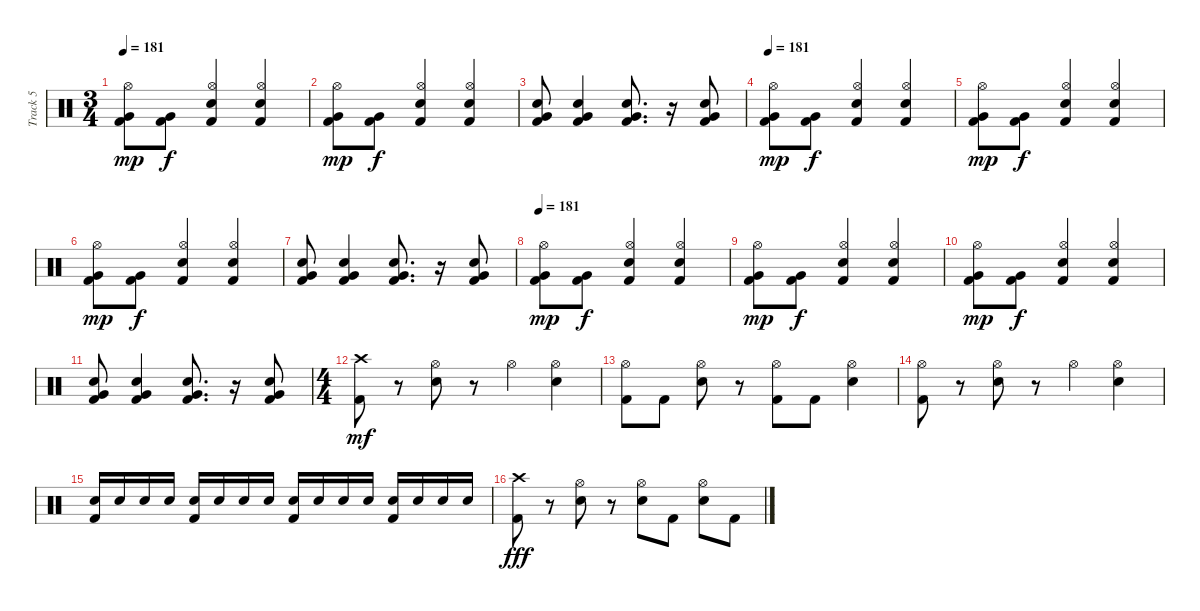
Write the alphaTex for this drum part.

\track ("Track 5" "Track 5") {instrument percussion}
\staff {score}
\articulation defaults
\ts (3 4)
\tempo 181
\clef neutral
\ks c
("Kick (hit) 2" "Very Low Tom (hit)" "Hi-Hat (open)").8{dy mp} ("Kick (hit) 2" "Very Low Tom (hit)").8{dy f} ("Electric Snare (hit)" "Kick (hit) 2" "Hi-Hat (open)").4 ("Electric Snare (hit)" "Kick (hit) 2" "Hi-Hat (open)").4 |
("Kick (hit) 2" "Very Low Tom (hit)" "Hi-Hat (open)").8{dy mp} ("Kick (hit) 2" "Very Low Tom (hit)").8{dy f} ("Electric Snare (hit)" "Kick (hit) 2" "Hi-Hat (open)").4 ("Electric Snare (hit)" "Kick (hit) 2" "Hi-Hat (open)").4 |
("Electric Snare (hit)" "Kick (hit) 2" "Very Low Tom (hit)").8 ("Electric Snare (hit)" "Kick (hit) 2" "Very Low Tom (hit)").4 ("Electric Snare (hit)" "Kick (hit) 2" "Very Low Tom (hit)").8{d} r.16 ("Electric Snare (hit)" "Kick (hit) 2" "Very Low Tom (hit)").8 |
\tempo 181
("Kick (hit) 2" "Very Low Tom (hit)" "Hi-Hat (open)").8{dy mp} ("Kick (hit) 2" "Very Low Tom (hit)").8{dy f} ("Electric Snare (hit)" "Kick (hit) 2" "Hi-Hat (open)").4 ("Electric Snare (hit)" "Kick (hit) 2" "Hi-Hat (open)").4 |
("Kick (hit) 2" "Very Low Tom (hit)" "Hi-Hat (open)").8{dy mp} ("Kick (hit) 2" "Very Low Tom (hit)").8{dy f} ("Electric Snare (hit)" "Kick (hit) 2" "Hi-Hat (open)").4 ("Electric Snare (hit)" "Kick (hit) 2" "Hi-Hat (open)").4 |
("Kick (hit) 2" "Very Low Tom (hit)" "Hi-Hat (open)").8{dy mp} ("Kick (hit) 2" "Very Low Tom (hit)").8{dy f} ("Electric Snare (hit)" "Kick (hit) 2" "Hi-Hat (open)").4 ("Electric Snare (hit)" "Kick (hit) 2" "Hi-Hat (open)").4 |
("Electric Snare (hit)" "Kick (hit) 2" "Very Low Tom (hit)").8 ("Electric Snare (hit)" "Kick (hit) 2" "Very Low Tom (hit)").4 ("Electric Snare (hit)" "Kick (hit) 2" "Very Low Tom (hit)").8{d} r.16 ("Electric Snare (hit)" "Kick (hit) 2" "Very Low Tom (hit)").8 |
\tempo 181
("Kick (hit) 2" "Very Low Tom (hit)" "Hi-Hat (open)").8{dy mp} ("Kick (hit) 2" "Very Low Tom (hit)").8{dy f} ("Electric Snare (hit)" "Kick (hit) 2" "Hi-Hat (open)").4 ("Electric Snare (hit)" "Kick (hit) 2" "Hi-Hat (open)").4 |
("Kick (hit) 2" "Very Low Tom (hit)" "Hi-Hat (open)").8{dy mp} ("Kick (hit) 2" "Very Low Tom (hit)").8{dy f} ("Electric Snare (hit)" "Kick (hit) 2" "Hi-Hat (open)").4 ("Electric Snare (hit)" "Kick (hit) 2" "Hi-Hat (open)").4 |
("Kick (hit) 2" "Very Low Tom (hit)" "Hi-Hat (open)").8{dy mp} ("Kick (hit) 2" "Very Low Tom (hit)").8{dy f} ("Electric Snare (hit)" "Kick (hit) 2" "Hi-Hat (open)").4 ("Electric Snare (hit)" "Kick (hit) 2" "Hi-Hat (open)").4 |
("Electric Snare (hit)" "Kick (hit) 2" "Very Low Tom (hit)").8 ("Electric Snare (hit)" "Kick (hit) 2" "Very Low Tom (hit)").4 ("Electric Snare (hit)" "Kick (hit) 2" "Very Low Tom (hit)").8{d} r.16 ("Electric Snare (hit)" "Kick (hit) 2" "Very Low Tom (hit)").8 |
\ts (4 4)
("Crash high (hit)" "Kick (hit) 2").8{dy mf} r.8 ("Electric Snare (hit)" "Hi-Hat (open)").8 r.8 "Hi-Hat (open)".4 ("Electric Snare (hit)" "Hi-Hat (open)").4 |
("Hi-Hat (open)" "Kick (hit) 2").8 "Kick (hit) 2".8 ("Electric Snare (hit)" "Hi-Hat (open)").8 r.8 ("Kick (hit) 2" "Hi-Hat (open)").8 "Kick (hit) 2".8 ("Electric Snare (hit)" "Hi-Hat (open)").4 |
("Hi-Hat (open)" "Kick (hit) 2").8 r.8 ("Electric Snare (hit)" "Hi-Hat (open)").8 r.8 "Hi-Hat (open)".4 ("Electric Snare (hit)" "Hi-Hat (open)").4 |
("Electric Snare (hit)" "Kick (hit) 2").16 "Electric Snare (hit)".16 "Electric Snare (hit)".16 "Electric Snare (hit)".16 ("Electric Snare (hit)" "Kick (hit) 2").16 "Electric Snare (hit)".16 "Electric Snare (hit)".16 "Electric Snare (hit)".16 ("Electric Snare (hit)" "Kick (hit) 2").16 "Electric Snare (hit)".16 "Electric Snare (hit)".16 "Electric Snare (hit)".16 ("Electric Snare (hit)" "Kick (hit) 2").16 "Electric Snare (hit)".16 "Electric Snare (hit)".16 "Electric Snare (hit)".16 |
("Crash high (hit)" "Kick (hit) 2").8{dy fff} r.8 ("Electric Snare (hit)" "Hi-Hat (open)").8 r.8 ("Electric Snare (hit)" "Hi-Hat (open)").8 "Kick (hit) 2".8 ("Electric Snare (hit)" "Hi-Hat (open)").8 "Kick (hit) 2".8
